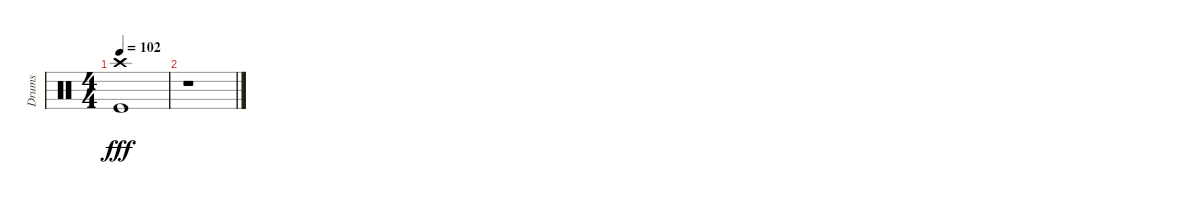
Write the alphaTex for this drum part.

\track ("Drums" "Drums") {instrument percussion}
\staff {score}
\articulation defaults
\ts (4 4)
\tempo 102
\clef neutral
\ks c
("Crash high (hit)" "Kick (hit)").1{dy fff} |
r.1
